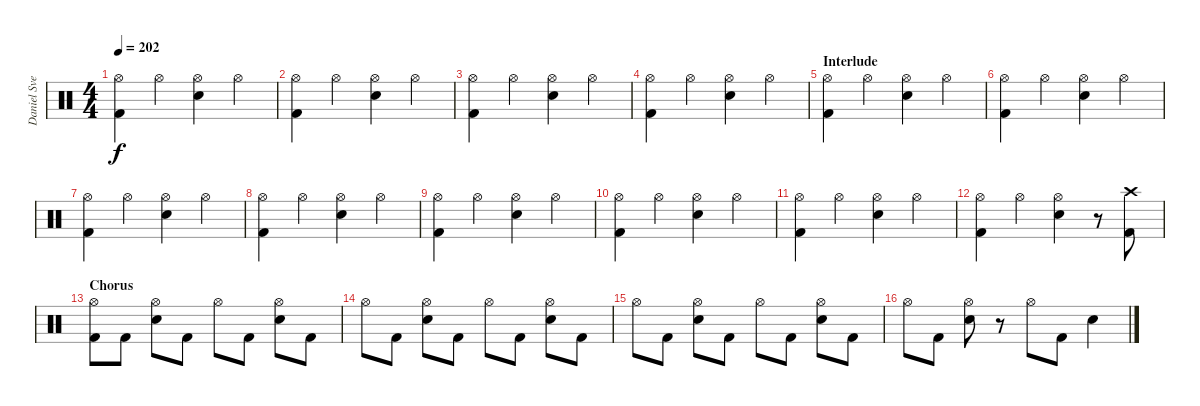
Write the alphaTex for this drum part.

\track ("Daniel Svensson" "Daniel Sve") {instrument percussion}
\staff {score}
\articulation defaults
\ts (4 4)
\tempo 202
\clef neutral
\ks c
("Hi-Hat (open)" "Kick (hit) 2").4{dy f} "Hi-Hat (open)".4 ("Hi-Hat (open)" "Electric Snare (hit)").4 "Hi-Hat (open)".4 |
("Hi-Hat (open)" "Kick (hit) 2").4 "Hi-Hat (open)".4 ("Hi-Hat (open)" "Electric Snare (hit)").4 "Hi-Hat (open)".4 |
("Hi-Hat (open)" "Kick (hit) 2").4 "Hi-Hat (open)".4 ("Hi-Hat (open)" "Electric Snare (hit)").4 "Hi-Hat (open)".4 |
("Hi-Hat (open)" "Kick (hit) 2").4 "Hi-Hat (open)".4 ("Hi-Hat (open)" "Electric Snare (hit)").4 "Hi-Hat (open)".4 |
\section ("" "Interlude")
("Hi-Hat (open)" "Kick (hit) 2").4 "Hi-Hat (open)".4 ("Hi-Hat (open)" "Electric Snare (hit)").4 "Hi-Hat (open)".4 |
("Hi-Hat (open)" "Kick (hit) 2").4 "Hi-Hat (open)".4 ("Hi-Hat (open)" "Electric Snare (hit)").4 "Hi-Hat (open)".4 |
("Hi-Hat (open)" "Kick (hit) 2").4 "Hi-Hat (open)".4 ("Hi-Hat (open)" "Electric Snare (hit)").4 "Hi-Hat (open)".4 |
("Hi-Hat (open)" "Kick (hit) 2").4 "Hi-Hat (open)".4 ("Hi-Hat (open)" "Electric Snare (hit)").4 "Hi-Hat (open)".4 |
("Hi-Hat (open)" "Kick (hit) 2").4 "Hi-Hat (open)".4 ("Hi-Hat (open)" "Electric Snare (hit)").4 "Hi-Hat (open)".4 |
("Hi-Hat (open)" "Kick (hit) 2").4 "Hi-Hat (open)".4 ("Hi-Hat (open)" "Electric Snare (hit)").4 "Hi-Hat (open)".4 |
("Hi-Hat (open)" "Kick (hit) 2").4 "Hi-Hat (open)".4 ("Hi-Hat (open)" "Electric Snare (hit)").4 "Hi-Hat (open)".4 |
("Hi-Hat (open)" "Kick (hit) 2").4 "Hi-Hat (open)".4 ("Hi-Hat (open)" "Electric Snare (hit)").4 r.8 ("Crash high (hit)" "Kick (hit) 2").8 |
\section ("" "Chorus")
("Hi-Hat (open)" "Kick (hit) 2").8 "Kick (hit) 2".8 ("Hi-Hat (open)" "Electric Snare (hit)").8 "Kick (hit) 2".8 "Hi-Hat (open)".8 "Kick (hit) 2".8 ("Hi-Hat (open)" "Electric Snare (hit)").8 "Kick (hit) 2".8 |
"Hi-Hat (open)".8 "Kick (hit) 2".8 ("Hi-Hat (open)" "Electric Snare (hit)").8 "Kick (hit) 2".8 "Hi-Hat (open)".8 "Kick (hit) 2".8 ("Hi-Hat (open)" "Electric Snare (hit)").8 "Kick (hit) 2".8 |
"Hi-Hat (open)".8 "Kick (hit) 2".8 ("Hi-Hat (open)" "Electric Snare (hit)").8 "Kick (hit) 2".8 "Hi-Hat (open)".8 "Kick (hit) 2".8 ("Hi-Hat (open)" "Electric Snare (hit)").8 "Kick (hit) 2".8 |
"Hi-Hat (open)".8 "Kick (hit) 2".8 ("Hi-Hat (open)" "Electric Snare (hit)").8 r.8 "Hi-Hat (open)".8 "Kick (hit) 2".8 "Electric Snare (hit)".4
